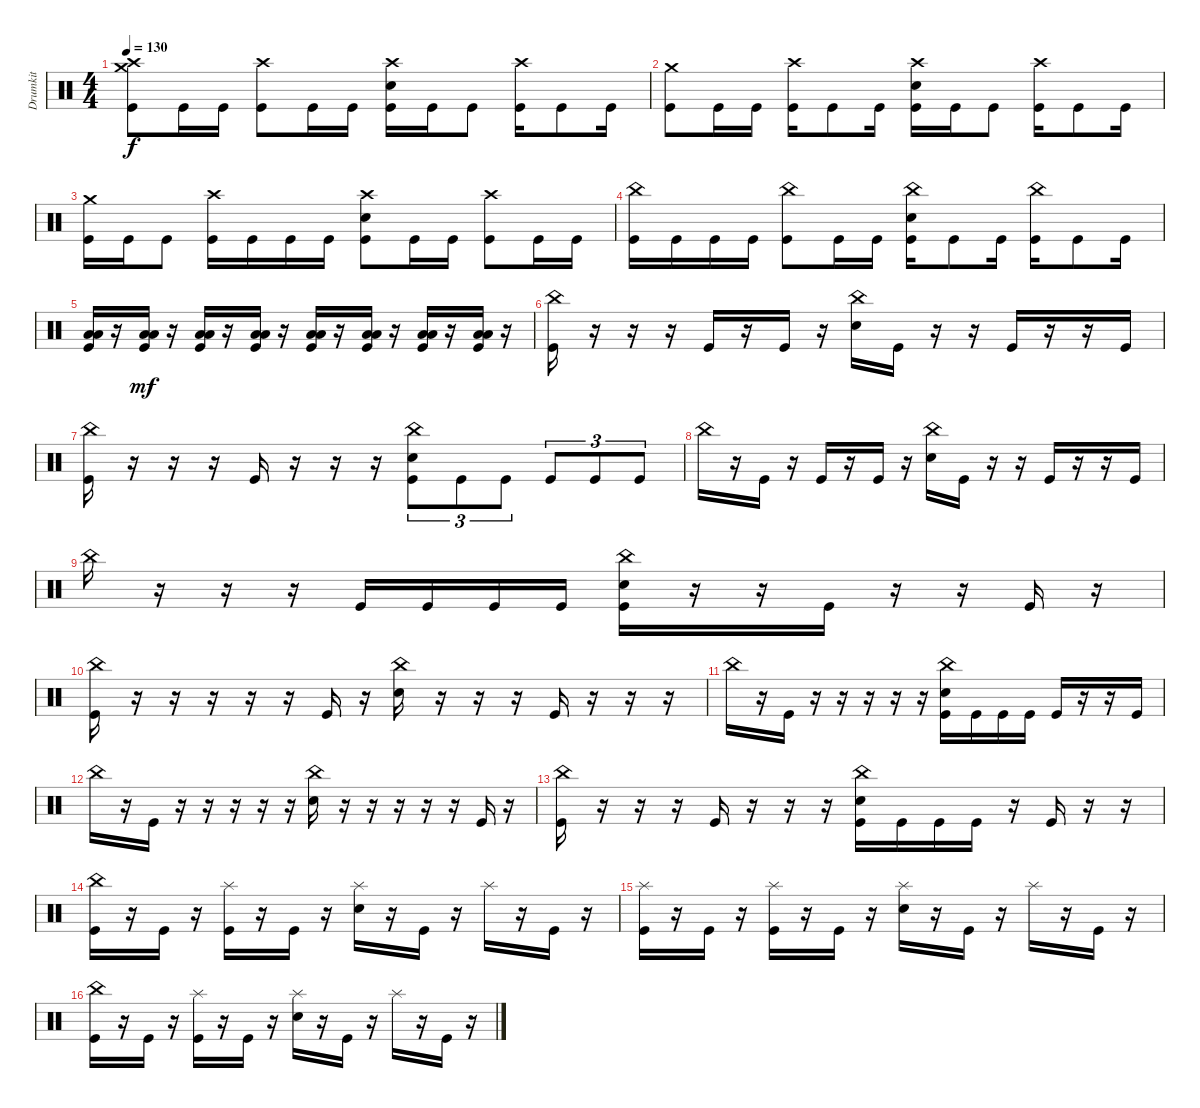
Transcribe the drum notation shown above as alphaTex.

\track ("Drumkit" "Drumkit") {instrument percussion}
\staff {score}
\articulation defaults
\ts (4 4)
\tempo 130
\clef neutral
\ks c
("Crash medium (hit)" "Crash high (hit)" "Kick (hit)").8{dy f} "Kick (hit)".16 "Kick (hit)".16 ("Crash high (hit)" "Kick (hit)").8 "Kick (hit)".16 "Kick (hit)".16 ("Crash high (hit)" "Snare (hit) 2" "Kick (hit)").16 "Kick (hit)".16 "Kick (hit)".8 ("Crash high (hit)" "Kick (hit)").16 "Kick (hit)".8 "Kick (hit)".16 |
("Crash medium (hit)" "Kick (hit)").8 "Kick (hit)".16 "Kick (hit)".16 ("Crash high (hit)" "Kick (hit)").16 "Kick (hit)".8 "Kick (hit)".16 ("Crash high (hit)" "Snare (hit) 2" "Kick (hit)").16 "Kick (hit)".16 "Kick (hit)".8 ("Crash high (hit)" "Kick (hit)").16 "Kick (hit)".8 "Kick (hit)".16 |
("Crash medium (hit)" "Kick (hit)").16 "Kick (hit)".16 "Kick (hit)".8 ("Crash high (hit)" "Kick (hit)").16 "Kick (hit)".16 "Kick (hit)".16 "Kick (hit)".16 ("Crash high (hit)" "Snare (hit) 2" "Kick (hit)").8 "Kick (hit)".16 "Kick (hit)".16 ("Crash high (hit)" "Kick (hit)").8 "Kick (hit)".16 "Kick (hit)".16 |
("China (hit)" "Kick (hit)").16 "Kick (hit)".16 "Kick (hit)".16 "Kick (hit)".16 ("China (hit)" "Kick (hit)").8 "Kick (hit)".16 "Kick (hit)".16 ("China (hit)" "Snare (hit) 2" "Kick (hit)").16 "Kick (hit)".8 "Kick (hit)".16 ("China (hit)" "Kick (hit)").16 "Kick (hit)".8 "Kick (hit)".16 |
("Low Floor Tom (hit)" "Low Tom (hit)" "Kick (hit)").16 r.16 ("Low Floor Tom (hit)" "Low Tom (hit)" "Kick (hit)").16{dy mf} r.16 ("Low Floor Tom (hit)" "Low Tom (hit)" "Kick (hit)").16 r.16 ("Low Floor Tom (hit)" "Low Tom (hit)" "Kick (hit)").16 r.16 ("Low Floor Tom (hit)" "Low Tom (hit)" "Kick (hit)").16 r.16 ("Low Floor Tom (hit)" "Low Tom (hit)" "Kick (hit)").16 r.16 ("Low Floor Tom (hit)" "Low Tom (hit)" "Kick (hit)").16 r.16 ("Low Floor Tom (hit)" "Low Tom (hit)" "Kick (hit)").16 r.16 |
("China (hit)" "Kick (hit)").16 r.16 r.16 r.16 "Kick (hit)".16 r.16 "Kick (hit)".16 r.16 ("China (hit)" "Snare (hit) 2").16 "Kick (hit)".16 r.16 r.16 "Kick (hit)".16 r.16 r.16 "Kick (hit)".16 |
("China (hit)" "Kick (hit)").16 r.16 r.16 r.16 "Kick (hit)".16 r.16 r.16 r.16 ("China (hit)" "Snare (hit) 2" "Kick (hit)").8{tu (3 2)} "Kick (hit)".8{tu (3 2)} "Kick (hit)".8{tu (3 2)} "Kick (hit)".8{tu (3 2)} "Kick (hit)".8{tu (3 2)} "Kick (hit)".8{tu (3 2)} |
"China (hit)".16 r.16 "Kick (hit)".16 r.16 "Kick (hit)".16 r.16 "Kick (hit)".16 r.16 ("China (hit)" "Snare (hit) 2").16 "Kick (hit)".16 r.16 r.16 "Kick (hit)".16 r.16 r.16 "Kick (hit)".16 |
"China (hit)".16 r.16 r.16 r.16 "Kick (hit)".16 "Kick (hit)".16 "Kick (hit)".16 "Kick (hit)".16 ("China (hit)" "Snare (hit) 2" "Kick (hit)").16 r.16 r.16 "Kick (hit)".16 r.16 r.16 "Kick (hit)".16 r.16 |
("China (hit)" "Kick (hit)").16 r.16 r.16 r.16 r.16 r.16 "Kick (hit)".16 r.16 ("China (hit)" "Snare (hit) 2").16 r.16 r.16 r.16 "Kick (hit)".16 r.16 r.16 r.16 |
"China (hit)".16 r.16 "Kick (hit)".16 r.16 r.16 r.16 r.16 r.16 ("China (hit)" "Snare (hit) 2" "Kick (hit)").16 "Kick (hit)".16 "Kick (hit)".16 "Kick (hit)".16 "Kick (hit)".16 r.16 r.16 "Kick (hit)".16 |
"China (hit)".16 r.16 "Kick (hit)".16 r.16 r.16 r.16 r.16 r.16 ("China (hit)" "Snare (hit) 2").16 r.16 r.16 r.16 r.16 r.16 "Kick (hit)".16 r.16 |
("China (hit)" "Kick (hit)").16 r.16 r.16 r.16 "Kick (hit)".16 r.16 r.16 r.16 ("China (hit)" "Snare (hit) 2" "Kick (hit)").16 "Kick (hit)".16 "Kick (hit)".16 "Kick (hit)".16 r.16 "Kick (hit)".16 r.16 r.16 |
("Kick (hit)" "China (hit)").16 r.16 "Kick (hit)".16 r.16 ("Kick (hit)" "Splash (hit)").16 r.16 "Kick (hit)".16 r.16 ("Snare (hit) 2" "Splash (hit)").16 r.16 "Kick (hit)".16 r.16 "Splash (hit)".16 r.16 "Kick (hit)".16 r.16 |
("Kick (hit)" "Splash (hit)").16 r.16 "Kick (hit)".16 r.16 ("Kick (hit)" "Splash (hit)").16 r.16 "Kick (hit)".16 r.16 ("Snare (hit) 2" "Splash (hit)").16 r.16 "Kick (hit)".16 r.16 "Splash (hit)".16 r.16 "Kick (hit)".16 r.16 |
("Kick (hit)" "China (hit)").16 r.16 "Kick (hit)".16 r.16 ("Kick (hit)" "Splash (hit)").16 r.16 "Kick (hit)".16 r.16 ("Snare (hit) 2" "Splash (hit)").16 r.16 "Kick (hit)".16 r.16 "Splash (hit)".16 r.16 "Kick (hit)".16 r.16
